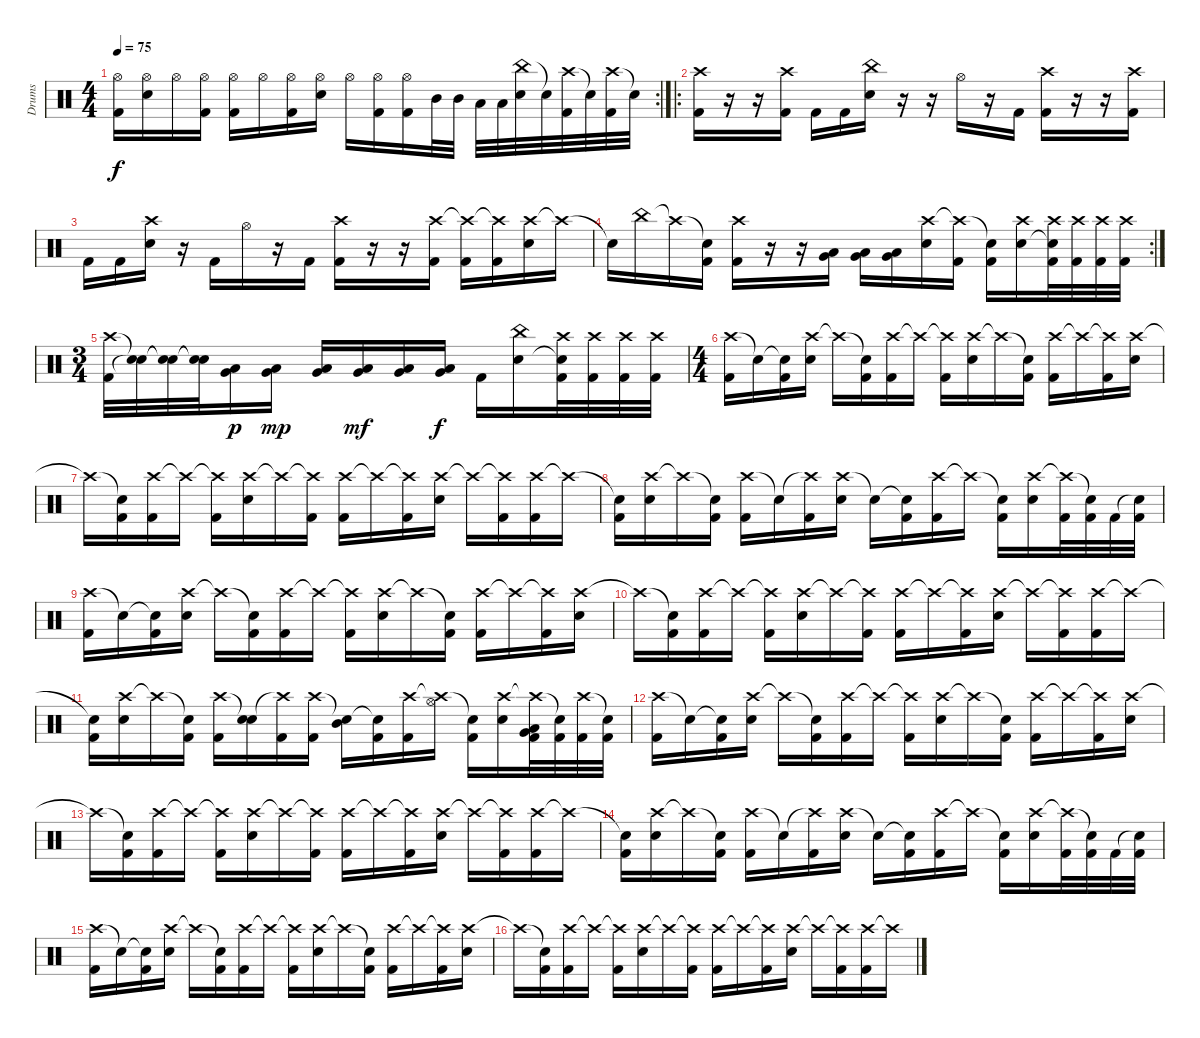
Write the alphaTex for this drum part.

\track ("Drums" "Drums") {instrument percussion}
\staff {score}
\articulation defaults
\rc 2
\ts (4 4)
\tempo 75
\clef neutral
\ks c
("Hi-Hat (open)" "Kick (hit) 2").16{dy f} ("Hi-Hat (open)" "Electric Snare (hit)").16 "Hi-Hat (open)".16 ("Hi-Hat (open)" "Kick (hit) 2").16 ("Hi-Hat (open)" "Kick (hit) 2").16 "Hi-Hat (open)".16 ("Hi-Hat (open)" "Kick (hit) 2").16 ("Hi-Hat (open)" "Electric Snare (hit)").16 "Hi-Hat (open)".16 ("Hi-Hat (open)" "Kick (hit) 2").16 ("Hi-Hat (open)" "Kick (hit) 2").16 "Mid Tom (hit)".32 "Mid Tom (hit)".32 "Low Tom (hit)".32 "Low Tom (hit)".32 ("China (hit)" "Electric Snare (hit)").32 "Snare (hit)"{t}.32 ("Crash high (hit)" "Kick (hit) 2").32 "Snare (hit)"{t}.32 ("Crash high (hit)" "Kick (hit) 2").32 "Snare (hit)"{t}.32 |
\ro
("Crash high (hit)" "Kick (hit) 2").16 r.16 r.16 ("Crash high (hit)" "Kick (hit) 2").16 "Kick (hit) 2".16 "Kick (hit) 2".16 ("China (hit)" "Electric Snare (hit)").16 r.16 r.16 "Hi-Hat (open)".16 r.16 "Kick (hit) 2".16 ("Crash high (hit)" "Kick (hit) 2").16 r.16 r.16 ("Crash high (hit)" "Kick (hit) 2").16 |
"Kick (hit) 2".16 "Kick (hit) 2".16 ("Crash high (hit)" "Electric Snare (hit)").16 r.16 "Kick (hit) 2".16 "Hi-Hat (open)".16 r.16 "Kick (hit) 2".16 ("Crash high (hit)" "Kick (hit) 2").16 r.16 r.16 ("Crash high (hit)" "Kick (hit) 2").16 ("Crash high (hit)"{t} "Kick (hit) 2").16 ("Crash high (hit)"{t} "Kick (hit) 2").16 ("Crash high (hit)" "Electric Snare (hit)").16 "Crash high (hit)"{t}.16 |
\rc 2 "Snare (hit)"{t}.16 "China (hit)".16 "Crash high (hit)"{t}.16
("Snare (hit)"{t} "Kick (hit) 2").16 ("Crash high (hit)" "Kick (hit) 2").16 r.16 r.16 ("Low Floor Tom (hit)" "Very Low Tom (hit)").16 ("Low Floor Tom (hit)" "Very Low Tom (hit)").16 ("Low Floor Tom (hit)" "Very Low Tom (hit)").16 ("Crash high (hit)" "Electric Snare (hit)").16 ("Crash high (hit)"{t} "Kick (hit) 2").16 ("Snare (hit)"{t} "Kick (hit) 2").16 ("Crash high (hit)" "Electric Snare (hit)").16 ("Crash high (hit)" "Electric Snare (hit)"{t} "Kick (hit) 2").32 ("Crash high (hit)" "Kick (hit) 2").32 ("Crash high (hit)" "Kick (hit) 2").32 ("Crash high (hit)" "Kick (hit) 2").32 |
\ts (3 4)
("Crash high (hit)" "Kick (hit) 2").32 ("Snare (hit)"{t} "Snare (hit)"{t}).32 ("Snare (hit)"{t} "Snare (hit)"{t}).32 ("Snare (hit)"{t} "Snare (hit)"{t}).32 ("Very Low Tom (hit)" "Low Floor Tom (hit)").16{dy p} ("Very Low Tom (hit)" "Low Floor Tom (hit)").16{dy mp} ("Very Low Tom (hit)" "Low Floor Tom (hit)").16 ("Very Low Tom (hit)" "Low Floor Tom (hit)").16{dy mf} ("Very Low Tom (hit)" "Low Floor Tom (hit)").16 ("Very Low Tom (hit)" "Low Floor Tom (hit)").16{dy f} "Kick (hit) 2".16 ("China (hit)" "Electric Snare (hit)").16 ("Crash high (hit)" "Snare (hit)"{t} "Kick (hit) 2").32 ("Crash high (hit)" "Kick (hit) 2").32 ("Crash high (hit)" "Kick (hit) 2").32 ("Crash high (hit)" "Kick (hit) 2").32 |
\ts (4 4)
("Crash high (hit)" "Kick (hit) 2").16 "Snare (hit)"{t}.16 ("Snare (hit)"{t} "Kick (hit) 2").16 ("Crash high (hit)" "Electric Snare (hit)").16 "Crash high (hit)"{t}.16 ("Snare (hit)"{t} "Kick (hit) 2").16 ("Crash high (hit)" "Kick (hit) 2").16 "Crash high (hit)"{t}.16 ("Crash high (hit)"{t} "Kick (hit) 2").16 ("Crash high (hit)" "Electric Snare (hit)").16 "Crash high (hit)"{t}.16 ("Snare (hit)"{t} "Kick (hit) 2").16 ("Crash high (hit)" "Kick (hit) 2").16 "Crash high (hit)"{t}.16 ("Crash high (hit)"{t} "Kick (hit) 2").16 ("Crash high (hit)" "Electric Snare (hit)").16 |
"Crash high (hit)"{t}.16 ("Snare (hit)"{t} "Kick (hit) 2").16 ("Crash high (hit)" "Kick (hit) 2").16 "Crash high (hit)"{t}.16 ("Crash high (hit)"{t} "Kick (hit) 2").16 ("Crash high (hit)" "Electric Snare (hit)").16 "Crash high (hit)"{t}.16 ("Crash high (hit)"{t} "Kick (hit) 2").16 ("Crash high (hit)" "Kick (hit) 2").16 "Crash high (hit)"{t}.16 ("Crash high (hit)"{t} "Kick (hit) 2").16 ("Crash high (hit)" "Electric Snare (hit)").16 "Crash high (hit)"{t}.16 ("Crash high (hit)"{t} "Kick (hit) 2").16 ("Crash high (hit)" "Kick (hit) 2").16 "Crash high (hit)"{t}.16 |
("Snare (hit)"{t} "Kick (hit) 2").16 ("Crash high (hit)" "Electric Snare (hit)").16 "Crash high (hit)"{t}.16 ("Snare (hit)"{t} "Kick (hit) 2").16 ("Crash high (hit)" "Kick (hit) 2").16 "Snare (hit)"{t}.16 ("Crash high (hit)"{t} "Kick (hit) 2").16 ("Crash high (hit)" "Electric Snare (hit)").16 "Snare (hit)"{t}.16 ("Snare (hit)"{t} "Kick (hit) 2").16 ("Crash high (hit)" "Kick (hit) 2").16 "Crash high (hit)"{t}.16 ("Snare (hit)"{t} "Kick (hit) 2").16 ("Crash high (hit)" "Electric Snare (hit)").16 ("Crash high (hit)"{t} "Kick (hit) 2").32 ("Snare (hit)"{t} "Kick (hit) 2").32 "Kick (hit) 2".32 ("Snare (hit)"{t} "Kick (hit) 2").32 |
("Crash high (hit)" "Kick (hit) 2").16 "Snare (hit)"{t}.16 ("Snare (hit)"{t} "Kick (hit) 2").16 ("Crash high (hit)" "Electric Snare (hit)").16 "Crash high (hit)"{t}.16 ("Snare (hit)"{t} "Kick (hit) 2").16 ("Crash high (hit)" "Kick (hit) 2").16 "Crash high (hit)"{t}.16 ("Crash high (hit)"{t} "Kick (hit) 2").16 ("Crash high (hit)" "Electric Snare (hit)").16 "Crash high (hit)"{t}.16 ("Snare (hit)"{t} "Kick (hit) 2").16 ("Crash high (hit)" "Kick (hit) 2").16 "Crash high (hit)"{t}.16 ("Crash high (hit)"{t} "Kick (hit) 2").16 ("Crash high (hit)" "Electric Snare (hit)").16 |
"Crash high (hit)"{t}.16 ("Snare (hit)"{t} "Kick (hit) 2").16 ("Crash high (hit)" "Kick (hit) 2").16 "Crash high (hit)"{t}.16 ("Crash high (hit)"{t} "Kick (hit) 2").16 ("Crash high (hit)" "Electric Snare (hit)").16 "Crash high (hit)"{t}.16 ("Crash high (hit)"{t} "Kick (hit) 2").16 ("Crash high (hit)" "Kick (hit) 2").16 "Crash high (hit)"{t}.16 ("Crash high (hit)"{t} "Kick (hit) 2").16 ("Crash high (hit)" "Electric Snare (hit)").16 "Crash high (hit)"{t}.16 ("Crash high (hit)"{t} "Kick (hit) 2").16 ("Crash high (hit)" "Kick (hit) 2").16 "Crash high (hit)"{t}.16 |
("Snare (hit)"{t} "Kick (hit) 2").16 ("Crash high (hit)" "Electric Snare (hit)").16 "Crash high (hit)"{t}.16 ("Snare (hit)"{t} "Kick (hit) 2").16 ("Crash high (hit)" "Kick (hit) 2").16 ("Snare (hit)"{t} "Electric Snare (hit)").16 ("Crash high (hit)"{t} "Kick (hit) 2").16 ("Crash high (hit)" "Kick (hit) 2").16 ("Snare (hit)"{t} "Mid Tom (hit)").16 ("Snare (hit)"{t} "Kick (hit) 2").16 ("Crash high (hit)" "Kick (hit) 2").16 ("Crash high (hit)"{t} "Hi-Hat (open)").16 ("Snare (hit)"{t} "Kick (hit) 2").16 ("Crash high (hit)" "Electric Snare (hit)").16 ("Crash high (hit)"{t} "Low Floor Tom (hit)" "Very Low Tom (hit)" "Kick (hit) 2").32 ("Snare (hit)"{t} "Kick (hit) 2").32 ("Crash high (hit)" "Kick (hit) 2").32 ("Snare (hit)"{t} "Kick (hit) 2").32 |
("Crash high (hit)" "Kick (hit) 2").16 "Snare (hit)"{t}.16 ("Snare (hit)"{t} "Kick (hit) 2").16 ("Crash high (hit)" "Electric Snare (hit)").16 "Crash high (hit)"{t}.16 ("Snare (hit)"{t} "Kick (hit) 2").16 ("Crash high (hit)" "Kick (hit) 2").16 "Crash high (hit)"{t}.16 ("Crash high (hit)"{t} "Kick (hit) 2").16 ("Crash high (hit)" "Electric Snare (hit)").16 "Crash high (hit)"{t}.16 ("Snare (hit)"{t} "Kick (hit) 2").16 ("Crash high (hit)" "Kick (hit) 2").16 "Crash high (hit)"{t}.16 ("Crash high (hit)"{t} "Kick (hit) 2").16 ("Crash high (hit)" "Electric Snare (hit)").16 |
"Crash high (hit)"{t}.16 ("Snare (hit)"{t} "Kick (hit) 2").16 ("Crash high (hit)" "Kick (hit) 2").16 "Crash high (hit)"{t}.16 ("Crash high (hit)"{t} "Kick (hit) 2").16 ("Crash high (hit)" "Electric Snare (hit)").16 "Crash high (hit)"{t}.16 ("Crash high (hit)"{t} "Kick (hit) 2").16 ("Crash high (hit)" "Kick (hit) 2").16 "Crash high (hit)"{t}.16 ("Crash high (hit)"{t} "Kick (hit) 2").16 ("Crash high (hit)" "Electric Snare (hit)").16 "Crash high (hit)"{t}.16 ("Crash high (hit)"{t} "Kick (hit) 2").16 ("Crash high (hit)" "Kick (hit) 2").16 "Crash high (hit)"{t}.16 |
("Snare (hit)"{t} "Kick (hit) 2").16 ("Crash high (hit)" "Electric Snare (hit)").16 "Crash high (hit)"{t}.16 ("Snare (hit)"{t} "Kick (hit) 2").16 ("Crash high (hit)" "Kick (hit) 2").16 "Snare (hit)"{t}.16 ("Crash high (hit)"{t} "Kick (hit) 2").16 ("Crash high (hit)" "Electric Snare (hit)").16 "Snare (hit)"{t}.16 ("Snare (hit)"{t} "Kick (hit) 2").16 ("Crash high (hit)" "Kick (hit) 2").16 "Crash high (hit)"{t}.16 ("Snare (hit)"{t} "Kick (hit) 2").16 ("Crash high (hit)" "Electric Snare (hit)").16 ("Crash high (hit)"{t} "Kick (hit) 2").32 ("Snare (hit)"{t} "Kick (hit) 2").32 "Kick (hit) 2".32 ("Snare (hit)"{t} "Kick (hit) 2").32 |
("Crash high (hit)" "Kick (hit) 2").16 "Snare (hit)"{t}.16 ("Snare (hit)"{t} "Kick (hit) 2").16 ("Crash high (hit)" "Electric Snare (hit)").16 "Crash high (hit)"{t}.16 ("Snare (hit)"{t} "Kick (hit) 2").16 ("Crash high (hit)" "Kick (hit) 2").16 "Crash high (hit)"{t}.16 ("Crash high (hit)"{t} "Kick (hit) 2").16 ("Crash high (hit)" "Electric Snare (hit)").16 "Crash high (hit)"{t}.16 ("Snare (hit)"{t} "Kick (hit) 2").16 ("Crash high (hit)" "Kick (hit) 2").16 "Crash high (hit)"{t}.16 ("Crash high (hit)"{t} "Kick (hit) 2").16 ("Crash high (hit)" "Electric Snare (hit)").16 |
"Crash high (hit)"{t}.16 ("Snare (hit)"{t} "Kick (hit) 2").16 ("Crash high (hit)" "Kick (hit) 2").16 "Crash high (hit)"{t}.16 ("Crash high (hit)"{t} "Kick (hit) 2").16 ("Crash high (hit)" "Electric Snare (hit)").16 "Crash high (hit)"{t}.16 ("Crash high (hit)"{t} "Kick (hit) 2").16 ("Crash high (hit)" "Kick (hit) 2").16 "Crash high (hit)"{t}.16 ("Crash high (hit)"{t} "Kick (hit) 2").16 ("Crash high (hit)" "Electric Snare (hit)").16 "Crash high (hit)"{t}.16 ("Crash high (hit)"{t} "Kick (hit) 2").16 ("Crash high (hit)" "Kick (hit) 2").16 "Crash high (hit)"{t}.16
